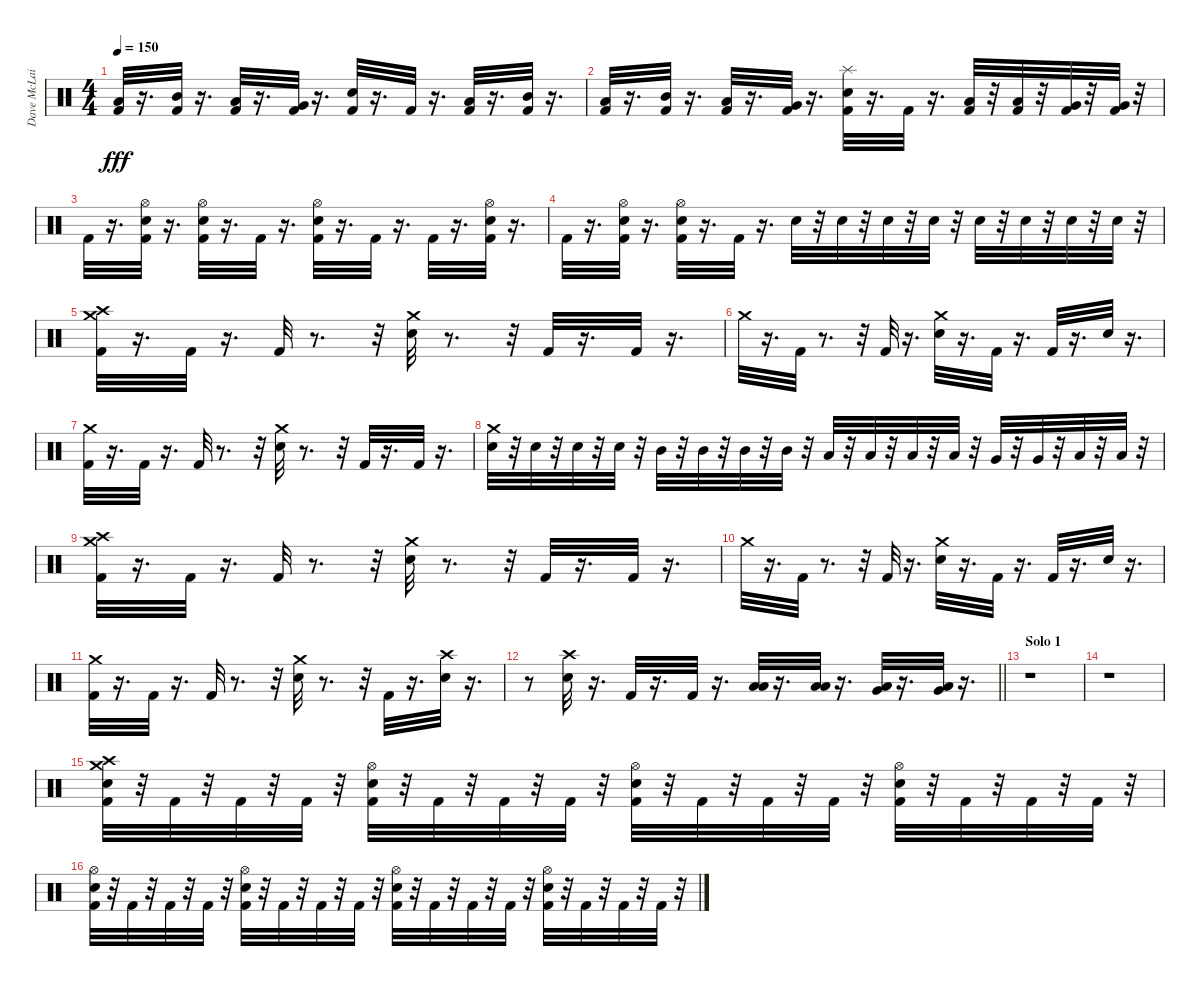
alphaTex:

\track ("Dave McLain" "Dave McLai") {instrument percussion}
\staff {score}
\articulation defaults
\ts (4 4)
\tempo 150
\clef neutral
\ks c
("Low Tom (hit)" "Kick (hit) 2").32{dy fff} r.16{d} ("Mid Tom (hit)" "Kick (hit) 2").32 r.16{d} ("Low Tom (hit)" "Kick (hit) 2").32 r.16{d} ("Very Low Tom (hit)" "Kick (hit) 2").32 r.16{d} ("Snare (hit) 2" "Kick (hit) 2").32 r.16{d} "Kick (hit) 2".32 r.16{d} ("Low Tom (hit)" "Kick (hit) 2").32 r.16{d} ("Mid Tom (hit)" "Kick (hit) 2").32 r.16{d} |
("Low Tom (hit)" "Kick (hit) 2").32 r.16{d} ("Mid Tom (hit)" "Kick (hit) 2").32 r.16{d} ("Low Tom (hit)" "Kick (hit) 2").32 r.16{d} ("Very Low Tom (hit)" "Kick (hit) 2").32 r.16{d} ("Splash (hit)" "Snare (hit) 2" "Kick (hit) 2").32 r.16{d} "Kick (hit) 2".32 r.16{d} ("Low Tom (hit)" "Kick (hit) 2").32 r.32 ("Kick (hit) 2" "Low Tom (hit)").32 r.32 ("Very Low Tom (hit)" "Kick (hit) 2").32 r.32 ("Kick (hit) 2" "Very Low Tom (hit)").32 r.32 |
"Kick (hit) 2".32 r.16{d} ("Hi-Hat (open)" "Snare (hit) 2" "Kick (hit) 2").32 r.16{d} ("Hi-Hat (open)" "Kick (hit) 2" "Snare (hit) 2").32 r.16{d} "Kick (hit) 2".32 r.16{d} ("Hi-Hat (open)" "Snare (hit) 2" "Kick (hit) 2").32 r.16{d} "Kick (hit) 2".32 r.16{d} "Kick (hit) 2".32 r.16{d} ("Hi-Hat (open)" "Snare (hit) 2" "Kick (hit) 2").32 r.16{d} |
"Kick (hit) 2".32 r.16{d} ("Hi-Hat (open)" "Snare (hit) 2" "Kick (hit) 2").32 r.16{d} ("Hi-Hat (open)" "Snare (hit) 2" "Kick (hit) 2").32 r.16{d} "Kick (hit) 2".32 r.16{d} "Snare (hit) 2".32 r.32 "Snare (hit) 2".32 r.32 "Snare (hit) 2".32 r.32 "Snare (hit) 2".32 r.32 "Snare (hit) 2".32 r.32 "Snare (hit) 2".32 r.32 "Snare (hit) 2".32 r.32 "Snare (hit) 2".32 r.32 |
("Crash medium (hit)" "Crash high (hit)" "Kick (hit) 2").32 r.16{d} "Kick (hit) 2".32 r.16{d} "Kick (hit) 2".32 r.8{d} r.32 ("Crash medium (hit)" "Snare (hit) 2").32 r.8{d} r.32 "Kick (hit) 2".32 r.16{d} "Kick (hit) 2".32 r.16{d} |
"Crash medium (hit)".32 r.16{d} "Kick (hit) 2".32 r.8{d} r.32 "Kick (hit) 2".32 r.16{d} ("Crash medium (hit)" "Snare (hit) 2").32 r.16{d} "Kick (hit) 2".32 r.16{d} "Kick (hit) 2".32 r.16{d} "Snare (hit) 2".32 r.16{d} |
("Kick (hit) 2" "Crash medium (hit)").32 r.16{d} "Kick (hit) 2".32 r.16{d} "Kick (hit) 2".32 r.8{d} r.32 ("Snare (hit) 2" "Crash medium (hit)").32 r.8{d} r.32 "Kick (hit) 2".32 r.16{d} "Kick (hit) 2".32 r.16{d} |
("Snare (hit) 2" "Crash medium (hit)").32 r.32 "Snare (hit) 2".32 r.32 "Snare (hit) 2".32 r.32 "Snare (hit) 2".32 r.32 "Mid Tom (hit)".32 r.32 "Mid Tom (hit)".32 r.32 "Mid Tom (hit)".32 r.32 "Mid Tom (hit)".32 r.32 "Low Tom (hit)".32 r.32 "Low Tom (hit)".32 r.32 "Low Tom (hit)".32 r.32 "Low Tom (hit)".32 r.32 "Very Low Tom (hit)".32 r.32 "Very Low Tom (hit)".32 r.32 "Low Floor Tom (hit)".32 r.32 "Low Floor Tom (hit)".32 r.32 |
("Crash medium (hit)" "Crash high (hit)" "Kick (hit) 2").32 r.16{d} "Kick (hit) 2".32 r.16{d} "Kick (hit) 2".32 r.8{d} r.32 ("Crash medium (hit)" "Snare (hit) 2").32 r.8{d} r.32 "Kick (hit) 2".32 r.16{d} "Kick (hit) 2".32 r.16{d} |
"Crash medium (hit)".32 r.16{d} "Kick (hit) 2".32 r.8{d} r.32 "Kick (hit) 2".32 r.16{d} ("Crash medium (hit)" "Snare (hit) 2").32 r.16{d} "Kick (hit) 2".32 r.16{d} "Kick (hit) 2".32 r.16{d} "Snare (hit) 2".32 r.16{d} |
("Kick (hit) 2" "Crash medium (hit)").32 r.16{d} "Kick (hit) 2".32 r.16{d} "Kick (hit) 2".32 r.8{d} r.32 ("Snare (hit) 2" "Crash medium (hit)").32 r.8{d} r.32 "Kick (hit) 2".32 r.16{d} ("Crash high (hit)" "Snare (hit) 2").32 r.16{d} |
\barLineRight lightlight
r.8 ("Crash high (hit)" "Snare (hit) 2").32 r.16{d} "Kick (hit) 2".32 r.16{d} "Kick (hit) 2".32 r.16{d} ("Low Tom (hit)" "Low Floor Tom (hit)").32 r.16{d} ("Low Tom (hit)" "Low Floor Tom (hit)").32 r.16{d} ("Very Low Tom (hit)" "Low Floor Tom (hit)").32 r.16{d} ("Very Low Tom (hit)" "Low Floor Tom (hit)").32 r.16{d} |
\section ("" "Solo 1")
r.1 |
r.1 |
("Crash high (hit)" "Crash medium (hit)" "Snare (hit) 2" "Kick (hit) 2").32 r.32 "Kick (hit) 2".32 r.32 "Kick (hit) 2".32 r.32 "Kick (hit) 2".32 r.32 ("Hi-Hat (open)" "Snare (hit) 2" "Kick (hit) 2").32 r.32 "Kick (hit) 2".32 r.32 "Kick (hit) 2".32 r.32 "Kick (hit) 2".32 r.32 ("Hi-Hat (open)" "Snare (hit) 2" "Kick (hit) 2").32 r.32 "Kick (hit) 2".32 r.32 "Kick (hit) 2".32 r.32 "Kick (hit) 2".32 r.32 ("Hi-Hat (open)" "Snare (hit) 2" "Kick (hit) 2").32 r.32 "Kick (hit) 2".32 r.32 "Kick (hit) 2".32 r.32 "Kick (hit) 2".32 r.32 |
("Hi-Hat (open)" "Snare (hit) 2" "Kick (hit) 2").32 r.32 "Kick (hit) 2".32 r.32 "Kick (hit) 2".32 r.32 "Kick (hit) 2".32 r.32 ("Hi-Hat (open)" "Snare (hit) 2" "Kick (hit) 2").32 r.32 "Kick (hit) 2".32 r.32 "Kick (hit) 2".32 r.32 "Kick (hit) 2".32 r.32 ("Hi-Hat (open)" "Snare (hit) 2" "Kick (hit) 2").32 r.32 "Kick (hit) 2".32 r.32 "Kick (hit) 2".32 r.32 "Kick (hit) 2".32 r.32 ("Hi-Hat (open)" "Snare (hit) 2" "Kick (hit) 2").32 r.32 "Kick (hit) 2".32 r.32 "Kick (hit) 2".32 r.32 "Kick (hit) 2".32 r.32
